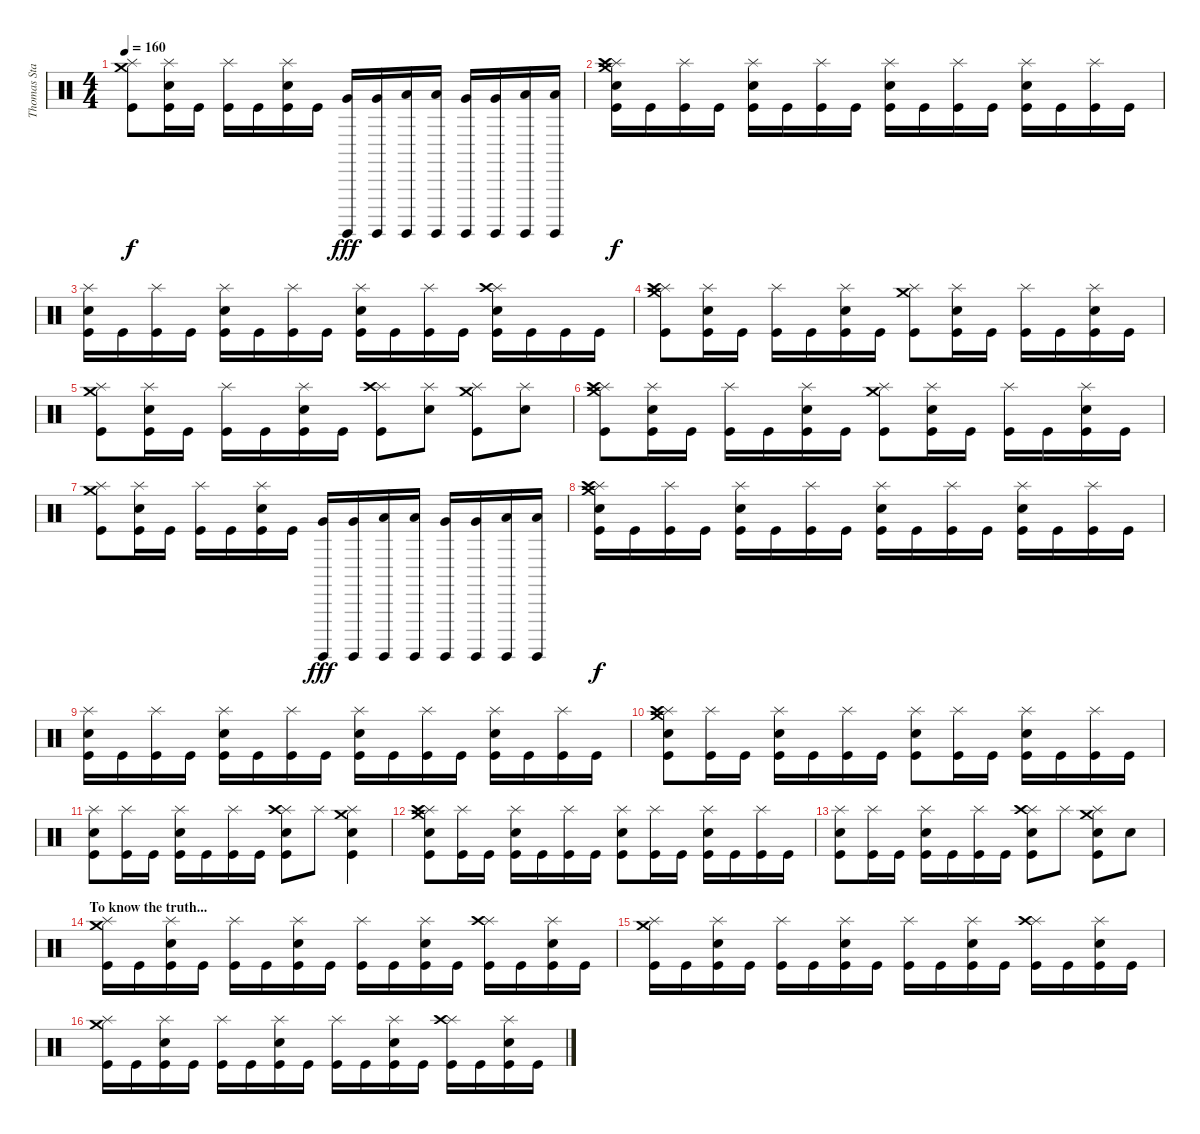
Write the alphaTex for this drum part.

\track ("Thomas Stauch" "Thomas Sta") {instrument percussion}
\staff {score}
\articulation defaults
\ts (4 4)
\tempo 160
\clef neutral
\ks c
("Crash medium (hit)" "Splash (hit)" "Kick (hit)").8{dy f} ("Splash (hit)" "Electric Snare (hit)" "Kick (hit)").16 "Kick (hit)".16 ("Splash (hit)" "Kick (hit)").16 "Kick (hit)".16 ("Splash (hit)" "Electric Snare (hit)" "Kick (hit)").16 "Kick (hit)".16 ("Surdo (hit)" "Very Low Tom (hit)").16{dy fff} ("Surdo (hit)" "Very Low Tom (hit)").16 ("Surdo (hit)" "Low Floor Tom (hit)").16 ("Surdo (hit)" "Low Floor Tom (hit)").16 ("Surdo (hit)" "Very Low Tom (hit)").16 ("Surdo (hit)" "Very Low Tom (hit)").16 ("Surdo (hit)" "Low Floor Tom (hit)").16 ("Surdo (hit)" "Low Floor Tom (hit)").16 |
("Crash medium (hit)" "Splash (hit)" "Crash high (hit)" "Electric Snare (hit)" "Kick (hit)").16{dy f} "Kick (hit)".16 ("Splash (hit)" "Kick (hit)").16 "Kick (hit)".16 ("Splash (hit)" "Electric Snare (hit)" "Kick (hit)").16 "Kick (hit)".16 ("Splash (hit)" "Kick (hit)").16 "Kick (hit)".16 ("Splash (hit)" "Electric Snare (hit)" "Kick (hit)").16 "Kick (hit)".16 ("Splash (hit)" "Kick (hit)").16 "Kick (hit)".16 ("Splash (hit)" "Electric Snare (hit)" "Kick (hit)").16 "Kick (hit)".16 ("Splash (hit)" "Kick (hit)").16 "Kick (hit)".16 |
("Splash (hit)" "Electric Snare (hit)" "Kick (hit)").16 "Kick (hit)".16 ("Splash (hit)" "Kick (hit)").16 "Kick (hit)".16 ("Splash (hit)" "Electric Snare (hit)" "Kick (hit)").16 "Kick (hit)".16 ("Splash (hit)" "Kick (hit)").16 "Kick (hit)".16 ("Splash (hit)" "Electric Snare (hit)" "Kick (hit)").16 "Kick (hit)".16 ("Splash (hit)" "Kick (hit)").16 "Kick (hit)".16 ("Splash (hit)" "Crash high (hit)" "Electric Snare (hit)" "Kick (hit)").16 "Kick (hit)".16 "Kick (hit)".16 "Kick (hit)".16 |
("Crash medium (hit)" "Splash (hit)" "Crash high (hit)" "Kick (hit)").8 ("Splash (hit)" "Electric Snare (hit)" "Kick (hit)").16 "Kick (hit)".16 ("Splash (hit)" "Kick (hit)").16 "Kick (hit)".16 ("Splash (hit)" "Electric Snare (hit)" "Kick (hit)").16 "Kick (hit)".16 ("Crash medium (hit)" "Splash (hit)" "Kick (hit)").8 ("Splash (hit)" "Electric Snare (hit)" "Kick (hit)").16 "Kick (hit)".16 ("Splash (hit)" "Kick (hit)").16 "Kick (hit)".16 ("Splash (hit)" "Electric Snare (hit)" "Kick (hit)").16 "Kick (hit)".16 |
("Crash medium (hit)" "Splash (hit)" "Kick (hit)").8 ("Splash (hit)" "Electric Snare (hit)" "Kick (hit)").16 "Kick (hit)".16 ("Splash (hit)" "Kick (hit)").16 "Kick (hit)".16 ("Splash (hit)" "Electric Snare (hit)" "Kick (hit)").16 "Kick (hit)".16 ("Splash (hit)" "Crash high (hit)" "Kick (hit)").8 ("Splash (hit)" "Electric Snare (hit)").8 ("Crash medium (hit)" "Splash (hit)" "Kick (hit)").8 ("Splash (hit)" "Electric Snare (hit)").8 |
("Crash medium (hit)" "Splash (hit)" "Crash high (hit)" "Kick (hit)").8 ("Splash (hit)" "Electric Snare (hit)" "Kick (hit)").16 "Kick (hit)".16 ("Splash (hit)" "Kick (hit)").16 "Kick (hit)".16 ("Splash (hit)" "Electric Snare (hit)" "Kick (hit)").16 "Kick (hit)".16 ("Crash medium (hit)" "Splash (hit)" "Kick (hit)").8 ("Splash (hit)" "Electric Snare (hit)" "Kick (hit)").16 "Kick (hit)".16 ("Splash (hit)" "Kick (hit)").16 "Kick (hit)".16 ("Splash (hit)" "Electric Snare (hit)" "Kick (hit)").16 "Kick (hit)".16 |
("Crash medium (hit)" "Splash (hit)" "Kick (hit)").8 ("Splash (hit)" "Electric Snare (hit)" "Kick (hit)").16 "Kick (hit)".16 ("Splash (hit)" "Kick (hit)").16 "Kick (hit)".16 ("Splash (hit)" "Electric Snare (hit)" "Kick (hit)").16 "Kick (hit)".16 ("Surdo (hit)" "Very Low Tom (hit)").16{dy fff} ("Surdo (hit)" "Very Low Tom (hit)").16 ("Surdo (hit)" "Low Floor Tom (hit)").16 ("Surdo (hit)" "Low Floor Tom (hit)").16 ("Surdo (hit)" "Very Low Tom (hit)").16 ("Surdo (hit)" "Very Low Tom (hit)").16 ("Surdo (hit)" "Low Floor Tom (hit)").16 ("Surdo (hit)" "Low Floor Tom (hit)").16 |
("Crash medium (hit)" "Splash (hit)" "Crash high (hit)" "Electric Snare (hit)" "Kick (hit)").16{dy f} "Kick (hit)".16 ("Splash (hit)" "Kick (hit)").16 "Kick (hit)".16 ("Splash (hit)" "Electric Snare (hit)" "Kick (hit)").16 "Kick (hit)".16 ("Splash (hit)" "Kick (hit)").16 "Kick (hit)".16 ("Splash (hit)" "Electric Snare (hit)" "Kick (hit)").16 "Kick (hit)".16 ("Splash (hit)" "Kick (hit)").16 "Kick (hit)".16 ("Splash (hit)" "Electric Snare (hit)" "Kick (hit)").16 "Kick (hit)".16 ("Splash (hit)" "Kick (hit)").16 "Kick (hit)".16 |
("Splash (hit)" "Electric Snare (hit)" "Kick (hit)").16 "Kick (hit)".16 ("Splash (hit)" "Kick (hit)").16 "Kick (hit)".16 ("Splash (hit)" "Electric Snare (hit)" "Kick (hit)").16 "Kick (hit)".16 ("Splash (hit)" "Kick (hit)").16 "Kick (hit)".16 ("Splash (hit)" "Electric Snare (hit)" "Kick (hit)").16 "Kick (hit)".16 ("Splash (hit)" "Kick (hit)").16 "Kick (hit)".16 ("Splash (hit)" "Electric Snare (hit)" "Kick (hit)").16 "Kick (hit)".16 ("Splash (hit)" "Kick (hit)").16 "Kick (hit)".16 |
("Crash medium (hit)" "Splash (hit)" "Crash high (hit)" "Electric Snare (hit)" "Kick (hit)").8 ("Splash (hit)" "Kick (hit)").16 "Kick (hit)".16 ("Splash (hit)" "Electric Snare (hit)" "Kick (hit)").16 "Kick (hit)".16 ("Splash (hit)" "Kick (hit)").16 "Kick (hit)".16 ("Splash (hit)" "Electric Snare (hit)" "Kick (hit)").8 ("Splash (hit)" "Kick (hit)").16 "Kick (hit)".16 ("Splash (hit)" "Electric Snare (hit)" "Kick (hit)").16 "Kick (hit)".16 ("Splash (hit)" "Kick (hit)").16 "Kick (hit)".16 |
("Splash (hit)" "Electric Snare (hit)" "Kick (hit)").8 ("Splash (hit)" "Kick (hit)").16 "Kick (hit)".16 ("Splash (hit)" "Electric Snare (hit)" "Kick (hit)").16 "Kick (hit)".16 ("Splash (hit)" "Kick (hit)").16 "Kick (hit)".16 ("Splash (hit)" "Crash high (hit)" "Electric Snare (hit)" "Kick (hit)").8 "Splash (hit)".8 ("Crash medium (hit)" "Splash (hit)" "Electric Snare (hit)" "Kick (hit)").4 |
("Crash medium (hit)" "Splash (hit)" "Crash high (hit)" "Electric Snare (hit)" "Kick (hit)").8 ("Splash (hit)" "Kick (hit)").16 "Kick (hit)".16 ("Splash (hit)" "Electric Snare (hit)" "Kick (hit)").16 "Kick (hit)".16 ("Splash (hit)" "Kick (hit)").16 "Kick (hit)".16 ("Splash (hit)" "Electric Snare (hit)" "Kick (hit)").8 ("Splash (hit)" "Kick (hit)").16 "Kick (hit)".16 ("Splash (hit)" "Electric Snare (hit)" "Kick (hit)").16 "Kick (hit)".16 ("Splash (hit)" "Kick (hit)").16 "Kick (hit)".16 |
("Splash (hit)" "Electric Snare (hit)" "Kick (hit)").8 ("Splash (hit)" "Kick (hit)").16 "Kick (hit)".16 ("Splash (hit)" "Electric Snare (hit)" "Kick (hit)").16 "Kick (hit)".16 ("Splash (hit)" "Kick (hit)").16 "Kick (hit)".16 ("Splash (hit)" "Crash high (hit)" "Electric Snare (hit)" "Kick (hit)").8 "Splash (hit)".8 ("Crash medium (hit)" "Splash (hit)" "Electric Snare (hit)" "Kick (hit)").8 "Electric Snare (hit)".8 |
\section ("" "To know the truth...")
("Crash medium (hit)" "Splash (hit)" "Kick (hit)").16 "Kick (hit)".16 ("Splash (hit)" "Electric Snare (hit)" "Kick (hit)").16 "Kick (hit)".16 ("Splash (hit)" "Kick (hit)").16 "Kick (hit)".16 ("Splash (hit)" "Electric Snare (hit)" "Kick (hit)").16 "Kick (hit)".16 ("Splash (hit)" "Kick (hit)").16 "Kick (hit)".16 ("Splash (hit)" "Electric Snare (hit)" "Kick (hit)").16 "Kick (hit)".16 ("Splash (hit)" "Crash high (hit)" "Kick (hit)").16 "Kick (hit)".16 ("Splash (hit)" "Electric Snare (hit)" "Kick (hit)").16 "Kick (hit)".16 |
("Crash medium (hit)" "Splash (hit)" "Kick (hit)").16 "Kick (hit)".16 ("Splash (hit)" "Electric Snare (hit)" "Kick (hit)").16 "Kick (hit)".16 ("Splash (hit)" "Kick (hit)").16 "Kick (hit)".16 ("Splash (hit)" "Electric Snare (hit)" "Kick (hit)").16 "Kick (hit)".16 ("Splash (hit)" "Kick (hit)").16 "Kick (hit)".16 ("Splash (hit)" "Electric Snare (hit)" "Kick (hit)").16 "Kick (hit)".16 ("Splash (hit)" "Crash high (hit)" "Kick (hit)").16 "Kick (hit)".16 ("Splash (hit)" "Electric Snare (hit)" "Kick (hit)").16 "Kick (hit)".16 |
("Crash medium (hit)" "Splash (hit)" "Kick (hit)").16 "Kick (hit)".16 ("Splash (hit)" "Electric Snare (hit)" "Kick (hit)").16 "Kick (hit)".16 ("Splash (hit)" "Kick (hit)").16 "Kick (hit)".16 ("Splash (hit)" "Electric Snare (hit)" "Kick (hit)").16 "Kick (hit)".16 ("Splash (hit)" "Kick (hit)").16 "Kick (hit)".16 ("Splash (hit)" "Electric Snare (hit)" "Kick (hit)").16 "Kick (hit)".16 ("Splash (hit)" "Crash high (hit)" "Kick (hit)").16 "Kick (hit)".16 ("Splash (hit)" "Electric Snare (hit)" "Kick (hit)").16 "Kick (hit)".16
